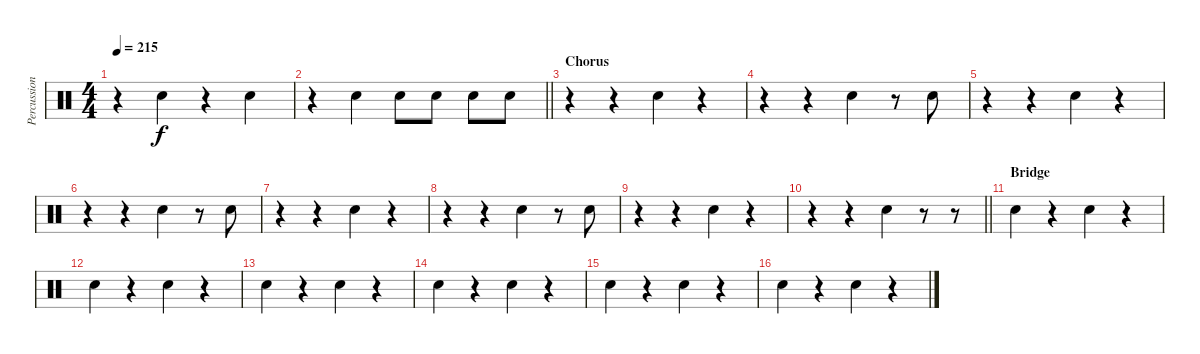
\track ("Percussion" "Percussion") {instrument percussion}
\staff {score}
\articulation defaults
\ts (4 4)
\tempo 215
\clef neutral
\ks c
r.4{dy f} "Snare (hit) 2".4 r.4 "Snare (hit) 2".4 |
\barLineRight lightlight
r.4 "Snare (hit) 2".4 "Snare (hit) 2".8 "Snare (hit) 2".8 "Snare (hit) 2".8 "Snare (hit) 2".8 |
\section ("" "Chorus")
r.4 r.4 "Snare (hit) 2".4 r.4 |
r.4 r.4 "Snare (hit) 2".4 r.8 "Snare (hit) 2".8 |
r.4 r.4 "Snare (hit) 2".4 r.4 |
r.4 r.4 "Snare (hit) 2".4 r.8 "Snare (hit) 2".8 |
r.4 r.4 "Snare (hit) 2".4 r.4 |
r.4 r.4 "Snare (hit) 2".4 r.8 "Snare (hit) 2".8 |
r.4 r.4 "Snare (hit) 2".4 r.4 |
\barLineRight lightlight
r.4 r.4 "Snare (hit) 2".4 r.8 r.8 |
\section ("" "Bridge")
"Snare (hit) 2".4 r.4 "Snare (hit) 2".4 r.4 |
"Snare (hit) 2".4 r.4 "Snare (hit) 2".4 r.4 |
"Snare (hit) 2".4 r.4 "Snare (hit) 2".4 r.4 |
"Snare (hit) 2".4 r.4 "Snare (hit) 2".4 r.4 |
"Snare (hit) 2".4 r.4 "Snare (hit) 2".4 r.4 |
"Snare (hit) 2".4 r.4 "Snare (hit) 2".4 r.4
